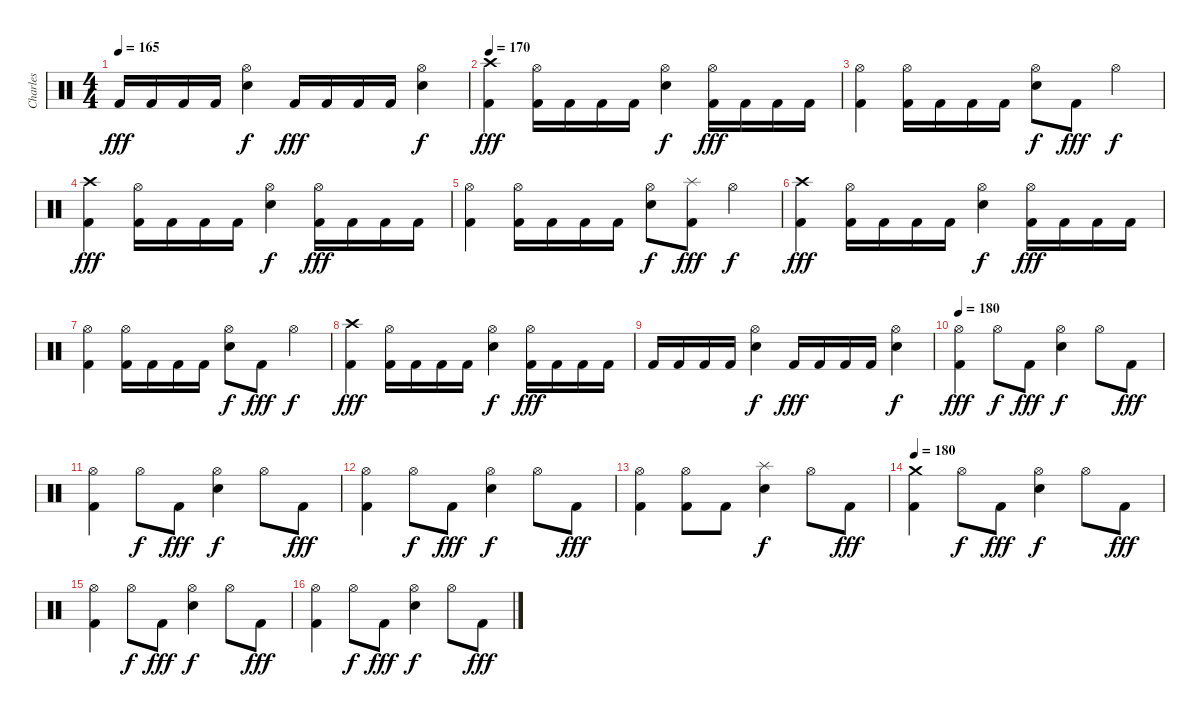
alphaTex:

\track ("Charles" "Charles") {instrument percussion}
\staff {score}
\articulation defaults
\ts (4 4)
\tempo 165
\clef neutral
\ks c "Kick (hit) 2".16{dy fff} "Kick (hit) 2".16 "Kick (hit) 2".16 "Kick (hit) 2".16
("Hi-Hat (open)" "Electric Snare (hit)").4{dy f} "Kick (hit) 2".16{dy fff} "Kick (hit) 2".16 "Kick (hit) 2".16 "Kick (hit) 2".16 ("Hi-Hat (open)" "Electric Snare (hit)").4{dy f} |
\tempo 170
("Crash high (hit)" "Kick (hit) 2").4{dy fff} ("Hi-Hat (open)" "Kick (hit) 2").16 "Kick (hit) 2".16 "Kick (hit) 2".16 "Kick (hit) 2".16 ("Hi-Hat (open)" "Electric Snare (hit)").4{dy f} ("Hi-Hat (open)" "Kick (hit) 2").16{dy fff} "Kick (hit) 2".16 "Kick (hit) 2".16 "Kick (hit) 2".16 |
("Hi-Hat (open)" "Kick (hit) 2").4 ("Hi-Hat (open)" "Kick (hit) 2").16 "Kick (hit) 2".16 "Kick (hit) 2".16 "Kick (hit) 2".16 ("Hi-Hat (open)" "Electric Snare (hit)").8{dy f} "Kick (hit) 2".8{dy fff} "Hi-Hat (open)".4{dy f} |
("Crash high (hit)" "Kick (hit) 2").4{dy fff} ("Hi-Hat (open)" "Kick (hit) 2").16 "Kick (hit) 2".16 "Kick (hit) 2".16 "Kick (hit) 2".16 ("Hi-Hat (open)" "Electric Snare (hit)").4{dy f} ("Hi-Hat (open)" "Kick (hit) 2").16{dy fff} "Kick (hit) 2".16 "Kick (hit) 2".16 "Kick (hit) 2".16 |
("Hi-Hat (open)" "Kick (hit) 2").4 ("Hi-Hat (open)" "Kick (hit) 2").16 "Kick (hit) 2".16 "Kick (hit) 2".16 "Kick (hit) 2".16 ("Hi-Hat (open)" "Electric Snare (hit)").8{dy f} ("Splash (hit)" "Kick (hit) 2").8{dy fff} "Hi-Hat (open)".4{dy f} |
("Crash high (hit)" "Kick (hit) 2").4{dy fff} ("Hi-Hat (open)" "Kick (hit) 2").16 "Kick (hit) 2".16 "Kick (hit) 2".16 "Kick (hit) 2".16 ("Hi-Hat (open)" "Electric Snare (hit)").4{dy f} ("Hi-Hat (open)" "Kick (hit) 2").16{dy fff} "Kick (hit) 2".16 "Kick (hit) 2".16 "Kick (hit) 2".16 |
("Hi-Hat (open)" "Kick (hit) 2").4 ("Hi-Hat (open)" "Kick (hit) 2").16 "Kick (hit) 2".16 "Kick (hit) 2".16 "Kick (hit) 2".16 ("Hi-Hat (open)" "Electric Snare (hit)").8{dy f} "Kick (hit) 2".8{dy fff} "Hi-Hat (open)".4{dy f} |
("Crash high (hit)" "Kick (hit) 2").4{dy fff} ("Hi-Hat (open)" "Kick (hit) 2").16 "Kick (hit) 2".16 "Kick (hit) 2".16 "Kick (hit) 2".16 ("Hi-Hat (open)" "Electric Snare (hit)").4{dy f} ("Hi-Hat (open)" "Kick (hit) 2").16{dy fff} "Kick (hit) 2".16 "Kick (hit) 2".16 "Kick (hit) 2".16 |
"Kick (hit) 2".16 "Kick (hit) 2".16 "Kick (hit) 2".16 "Kick (hit) 2".16 ("Hi-Hat (open)" "Electric Snare (hit)").4{dy f} "Kick (hit) 2".16{dy fff} "Kick (hit) 2".16 "Kick (hit) 2".16 "Kick (hit) 2".16 ("Hi-Hat (open)" "Electric Snare (hit)").4{dy f} |
\tempo 180
("Hi-Hat (open)" "Kick (hit) 2").4{dy fff} "Hi-Hat (open)".8{dy f} "Kick (hit) 2".8{dy fff} ("Hi-Hat (open)" "Electric Snare (hit)").4{dy f} "Hi-Hat (open)".8 "Kick (hit) 2".8{dy fff} |
("Hi-Hat (open)" "Kick (hit) 2").4 "Hi-Hat (open)".8{dy f} "Kick (hit) 2".8{dy fff} ("Hi-Hat (open)" "Electric Snare (hit)").4{dy f} "Hi-Hat (open)".8 "Kick (hit) 2".8{dy fff} |
("Hi-Hat (open)" "Kick (hit) 2").4 "Hi-Hat (open)".8{dy f} "Kick (hit) 2".8{dy fff} ("Hi-Hat (open)" "Electric Snare (hit)").4{dy f} "Hi-Hat (open)".8 "Kick (hit) 2".8{dy fff} |
("Hi-Hat (open)" "Kick (hit) 2").4 ("Hi-Hat (open)" "Kick (hit) 2").8 "Kick (hit) 2".8 ("Splash (hit)" "Electric Snare (hit)").4{dy f} "Hi-Hat (open)".8 "Kick (hit) 2".8{dy fff} |
\tempo 180
("Crash medium (hit)" "Kick (hit) 2").4 "Hi-Hat (open)".8{dy f} "Kick (hit) 2".8{dy fff} ("Hi-Hat (open)" "Electric Snare (hit)").4{dy f} "Hi-Hat (open)".8 "Kick (hit) 2".8{dy fff} |
("Hi-Hat (open)" "Kick (hit) 2").4 "Hi-Hat (open)".8{dy f} "Kick (hit) 2".8{dy fff} ("Hi-Hat (open)" "Electric Snare (hit)").4{dy f} "Hi-Hat (open)".8 "Kick (hit) 2".8{dy fff} |
("Hi-Hat (open)" "Kick (hit) 2").4 "Hi-Hat (open)".8{dy f} "Kick (hit) 2".8{dy fff} ("Hi-Hat (open)" "Electric Snare (hit)").4{dy f} "Hi-Hat (open)".8 "Kick (hit) 2".8{dy fff}
